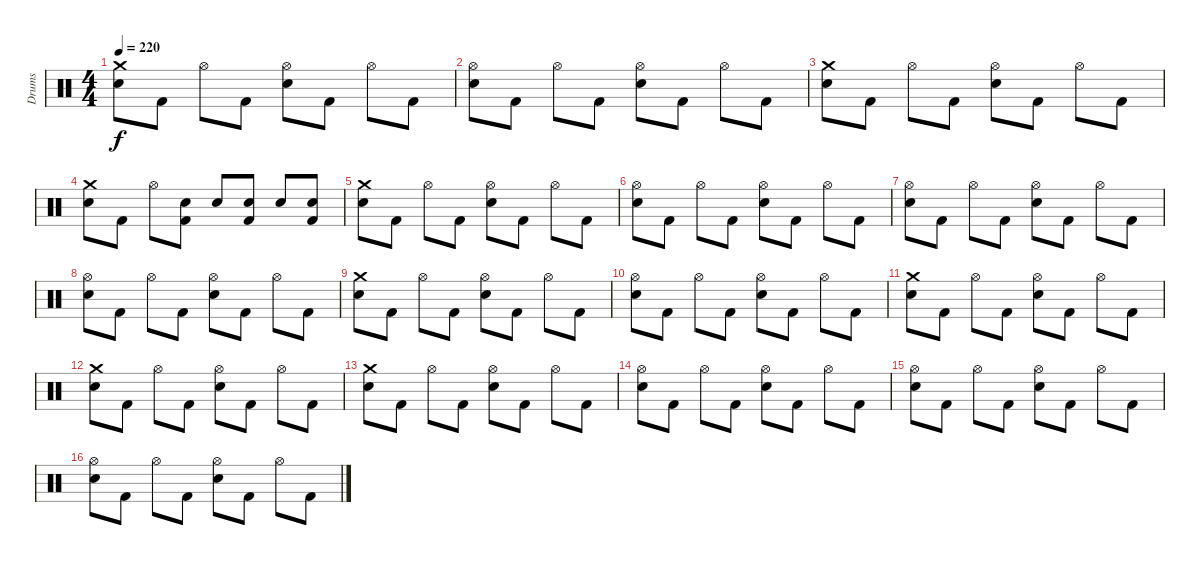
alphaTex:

\track ("Drums" "Drums") {instrument percussion}
\staff {score}
\articulation defaults
\ts (4 4)
\tempo 220
\clef neutral
\ks c
("Crash medium (hit)" "Electric Snare (hit)").8{dy f} "Kick (hit) 2".8 "Hi-Hat (open)".8 "Kick (hit) 2".8 ("Hi-Hat (open)" "Electric Snare (hit)").8 "Kick (hit) 2".8 "Hi-Hat (open)".8 "Kick (hit) 2".8 |
("Hi-Hat (open)" "Electric Snare (hit)").8 "Kick (hit) 2".8 "Hi-Hat (open)".8 "Kick (hit) 2".8 ("Hi-Hat (open)" "Electric Snare (hit)").8 "Kick (hit) 2".8 "Hi-Hat (open)".8 "Kick (hit) 2".8 |
("Crash medium (hit)" "Electric Snare (hit)").8 "Kick (hit) 2".8 "Hi-Hat (open)".8 "Kick (hit) 2".8 ("Hi-Hat (open)" "Electric Snare (hit)").8 "Kick (hit) 2".8 "Hi-Hat (open)".8 "Kick (hit) 2".8 |
("Crash medium (hit)" "Electric Snare (hit)").8 "Kick (hit) 2".8 "Hi-Hat (open)".8 ("Electric Snare (hit)" "Kick (hit) 2").8 "Electric Snare (hit)".8 ("Electric Snare (hit)" "Kick (hit) 2").8 "Electric Snare (hit)".8 ("Electric Snare (hit)" "Kick (hit) 2").8 |
("Crash medium (hit)" "Electric Snare (hit)").8 "Kick (hit) 2".8 "Hi-Hat (open)".8 "Kick (hit) 2".8 ("Hi-Hat (open)" "Electric Snare (hit)").8 "Kick (hit) 2".8 "Hi-Hat (open)".8 "Kick (hit) 2".8 |
("Hi-Hat (open)" "Electric Snare (hit)").8 "Kick (hit) 2".8 "Hi-Hat (open)".8 "Kick (hit) 2".8 ("Hi-Hat (open)" "Electric Snare (hit)").8 "Kick (hit) 2".8 "Hi-Hat (open)".8 "Kick (hit) 2".8 |
("Hi-Hat (open)" "Electric Snare (hit)").8 "Kick (hit) 2".8 "Hi-Hat (open)".8 "Kick (hit) 2".8 ("Hi-Hat (open)" "Electric Snare (hit)").8 "Kick (hit) 2".8 "Hi-Hat (open)".8 "Kick (hit) 2".8 |
("Hi-Hat (open)" "Electric Snare (hit)").8 "Kick (hit) 2".8 "Hi-Hat (open)".8 "Kick (hit) 2".8 ("Hi-Hat (open)" "Electric Snare (hit)").8 "Kick (hit) 2".8 "Hi-Hat (open)".8 "Kick (hit) 2".8 |
("Crash medium (hit)" "Electric Snare (hit)").8 "Kick (hit) 2".8 "Hi-Hat (open)".8 "Kick (hit) 2".8 ("Hi-Hat (open)" "Electric Snare (hit)").8 "Kick (hit) 2".8 "Hi-Hat (open)".8 "Kick (hit) 2".8 |
("Hi-Hat (open)" "Electric Snare (hit)").8 "Kick (hit) 2".8 "Hi-Hat (open)".8 "Kick (hit) 2".8 ("Hi-Hat (open)" "Electric Snare (hit)").8 "Kick (hit) 2".8 "Hi-Hat (open)".8 "Kick (hit) 2".8 |
("Crash medium (hit)" "Electric Snare (hit)").8 "Kick (hit) 2".8 "Hi-Hat (open)".8 "Kick (hit) 2".8 ("Hi-Hat (open)" "Electric Snare (hit)").8 "Kick (hit) 2".8 "Hi-Hat (open)".8 "Kick (hit) 2".8 |
("Crash medium (hit)" "Electric Snare (hit)").8 "Kick (hit) 2".8 "Hi-Hat (open)".8 "Kick (hit) 2".8 ("Hi-Hat (open)" "Electric Snare (hit)").8 "Kick (hit) 2".8 "Hi-Hat (open)".8 "Kick (hit) 2".8 |
("Crash medium (hit)" "Electric Snare (hit)").8 "Kick (hit) 2".8 "Hi-Hat (open)".8 "Kick (hit) 2".8 ("Hi-Hat (open)" "Electric Snare (hit)").8 "Kick (hit) 2".8 "Hi-Hat (open)".8 "Kick (hit) 2".8 |
("Hi-Hat (open)" "Electric Snare (hit)").8 "Kick (hit) 2".8 "Hi-Hat (open)".8 "Kick (hit) 2".8 ("Hi-Hat (open)" "Electric Snare (hit)").8 "Kick (hit) 2".8 "Hi-Hat (open)".8 "Kick (hit) 2".8 |
("Hi-Hat (open)" "Electric Snare (hit)").8 "Kick (hit) 2".8 "Hi-Hat (open)".8 "Kick (hit) 2".8 ("Hi-Hat (open)" "Electric Snare (hit)").8 "Kick (hit) 2".8 "Hi-Hat (open)".8 "Kick (hit) 2".8 |
("Hi-Hat (open)" "Electric Snare (hit)").8 "Kick (hit) 2".8 "Hi-Hat (open)".8 "Kick (hit) 2".8 ("Hi-Hat (open)" "Electric Snare (hit)").8 "Kick (hit) 2".8 "Hi-Hat (open)".8 "Kick (hit) 2".8
